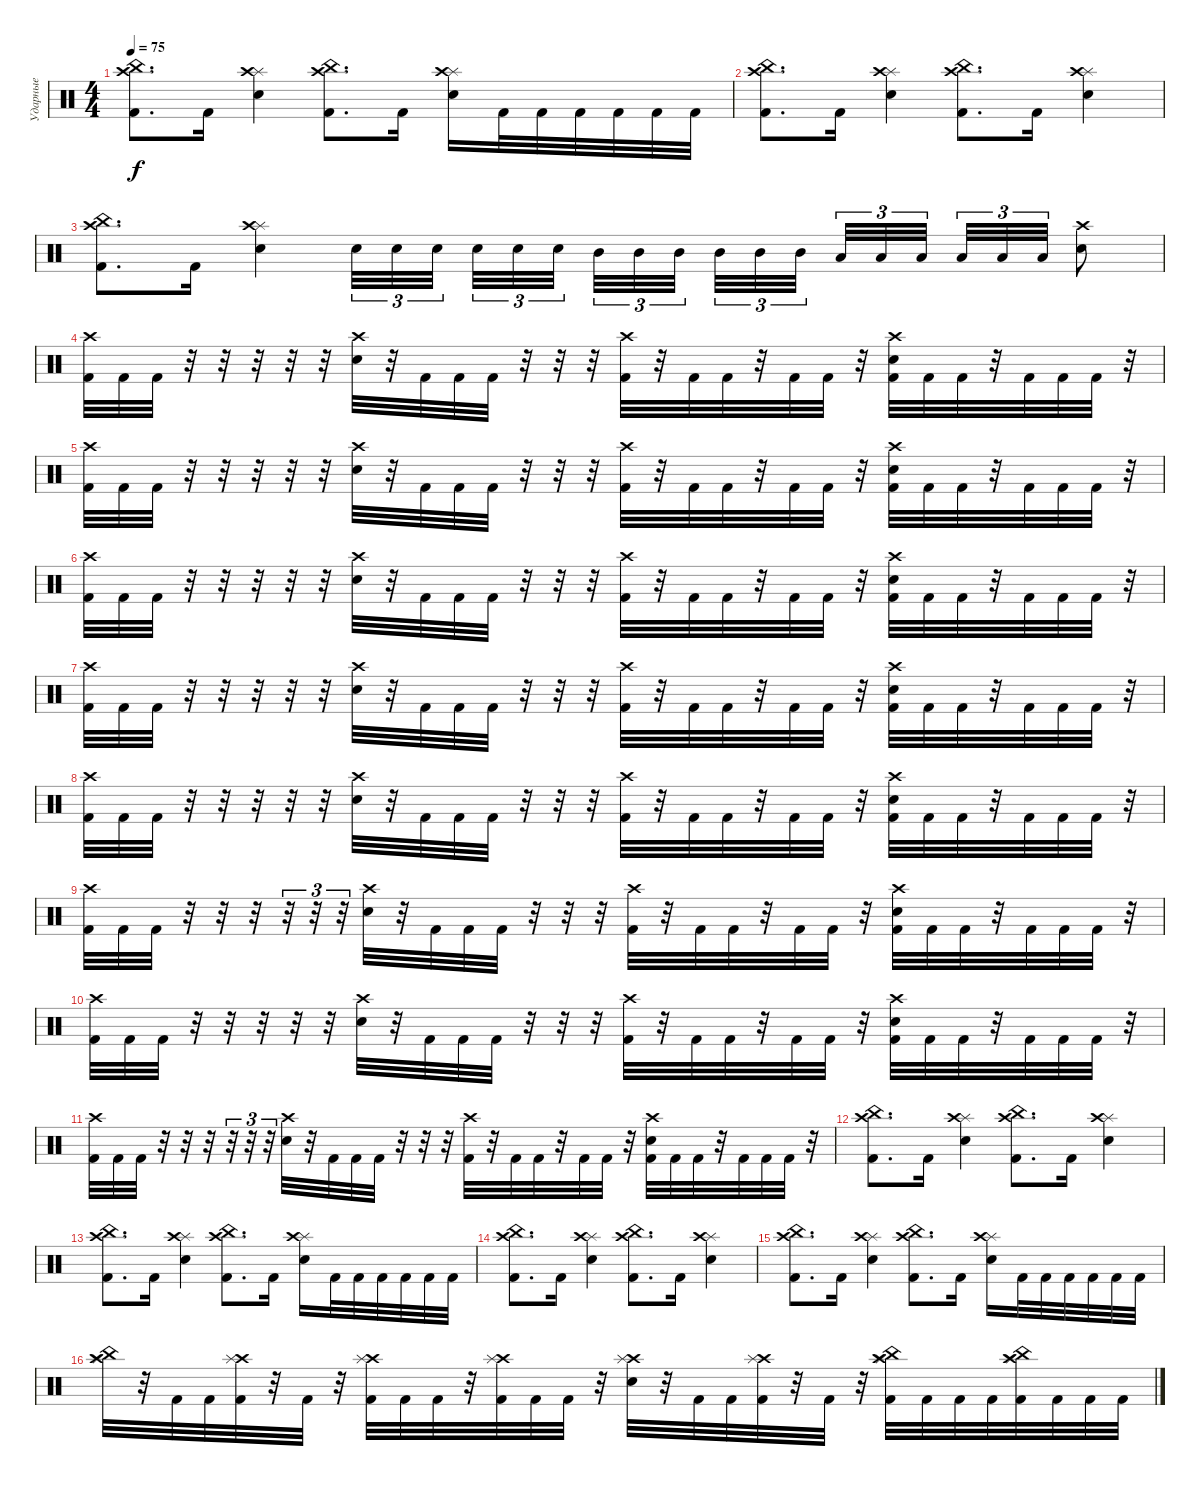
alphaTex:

\track ("Ударные" "Ударные") {instrument percussion}
\staff {score}
\articulation defaults
\ts (4 4)
\tempo 75
\clef neutral
\ks c
("Crash high (hit)" "China (hit)" "Kick (hit) 2").8{d dy f} "Kick (hit) 2".16 ("Splash (hit)" "Crash high (hit)" "Electric Snare (hit)").4 ("China (hit)" "Crash high (hit)" "Kick (hit) 2").8{d} "Kick (hit) 2".16 ("Splash (hit)" "Crash high (hit)" "Electric Snare (hit)").16 "Kick (hit) 2".32 "Kick (hit) 2".32 "Kick (hit) 2".32 "Kick (hit) 2".32 "Kick (hit) 2".32 "Kick (hit) 2".32 |
("Crash high (hit)" "China (hit)" "Kick (hit) 2").8{d} "Kick (hit) 2".16 ("Splash (hit)" "Crash high (hit)" "Electric Snare (hit)").4 ("China (hit)" "Crash high (hit)" "Kick (hit) 2").8{d} "Kick (hit) 2".16 ("Splash (hit)" "Crash high (hit)" "Electric Snare (hit)").4 |
("Crash high (hit)" "China (hit)" "Kick (hit) 2").8{d} "Kick (hit) 2".16 ("Splash (hit)" "Crash high (hit)" "Electric Snare (hit)").4 "Electric Snare (hit)".32{tu (3 2)} "Electric Snare (hit)".32{tu (3 2)} "Electric Snare (hit)".32{tu (3 2) beam splitsecondary} "Electric Snare (hit)".32{tu (3 2)} "Electric Snare (hit)".32{tu (3 2)} "Electric Snare (hit)".32{tu (3 2) beam splitsecondary} "Mid Tom (hit)".32{tu (3 2)} "Mid Tom (hit)".32{tu (3 2)} "Mid Tom (hit)".32{tu (3 2) beam splitsecondary} "Mid Tom (hit)".32{tu (3 2)} "Mid Tom (hit)".32{tu (3 2)} "Mid Tom (hit)".32{tu (3 2)} "Low Tom (hit)".32{tu (3 2)} "Low Tom (hit)".32{tu (3 2)} "Low Tom (hit)".32{tu (3 2) beam splitsecondary} "Low Tom (hit)".32{tu (3 2)} "Low Tom (hit)".32{tu (3 2)} "Low Tom (hit)".32{tu (3 2)} ("Crash high (hit)" "Electric Snare (hit)").8 |
("Crash high (hit)" "Kick (hit) 2").32 "Kick (hit) 2".32 "Kick (hit) 2".32 r.32 r.32 r.32 r.32 r.32 ("Crash high (hit)" "Electric Snare (hit)").32 r.32 "Kick (hit) 2".32 "Kick (hit) 2".32 "Kick (hit) 2".32 r.32 r.32 r.32 ("Crash high (hit)" "Kick (hit) 2").32 r.32 "Kick (hit) 2".32 "Kick (hit) 2".32 r.32 "Kick (hit) 2".32 "Kick (hit) 2".32 r.32 ("Crash high (hit)" "Electric Snare (hit)" "Kick (hit) 2").32 "Kick (hit) 2".32 "Kick (hit) 2".32 r.32 "Kick (hit) 2".32 "Kick (hit) 2".32 "Kick (hit) 2".32 r.32 |
("Crash high (hit)" "Kick (hit) 2").32 "Kick (hit) 2".32 "Kick (hit) 2".32 r.32 r.32 r.32 r.32 r.32 ("Crash high (hit)" "Electric Snare (hit)").32 r.32 "Kick (hit) 2".32 "Kick (hit) 2".32 "Kick (hit) 2".32 r.32 r.32 r.32 ("Crash high (hit)" "Kick (hit) 2").32 r.32 "Kick (hit) 2".32 "Kick (hit) 2".32 r.32 "Kick (hit) 2".32 "Kick (hit) 2".32 r.32 ("Crash high (hit)" "Electric Snare (hit)" "Kick (hit) 2").32 "Kick (hit) 2".32 "Kick (hit) 2".32 r.32 "Kick (hit) 2".32 "Kick (hit) 2".32 "Kick (hit) 2".32 r.32 |
("Crash high (hit)" "Kick (hit) 2").32 "Kick (hit) 2".32 "Kick (hit) 2".32 r.32 r.32 r.32 r.32 r.32 ("Crash high (hit)" "Electric Snare (hit)").32 r.32 "Kick (hit) 2".32 "Kick (hit) 2".32 "Kick (hit) 2".32 r.32 r.32 r.32 ("Crash high (hit)" "Kick (hit) 2").32 r.32 "Kick (hit) 2".32 "Kick (hit) 2".32 r.32 "Kick (hit) 2".32 "Kick (hit) 2".32 r.32 ("Crash high (hit)" "Electric Snare (hit)" "Kick (hit) 2").32 "Kick (hit) 2".32 "Kick (hit) 2".32 r.32 "Kick (hit) 2".32 "Kick (hit) 2".32 "Kick (hit) 2".32 r.32 |
("Crash high (hit)" "Kick (hit) 2").32 "Kick (hit) 2".32 "Kick (hit) 2".32 r.32 r.32 r.32 r.32 r.32 ("Crash high (hit)" "Electric Snare (hit)").32 r.32 "Kick (hit) 2".32 "Kick (hit) 2".32 "Kick (hit) 2".32 r.32 r.32 r.32 ("Crash high (hit)" "Kick (hit) 2").32 r.32 "Kick (hit) 2".32 "Kick (hit) 2".32 r.32 "Kick (hit) 2".32 "Kick (hit) 2".32 r.32 ("Crash high (hit)" "Electric Snare (hit)" "Kick (hit) 2").32 "Kick (hit) 2".32 "Kick (hit) 2".32 r.32 "Kick (hit) 2".32 "Kick (hit) 2".32 "Kick (hit) 2".32 r.32 |
("Crash high (hit)" "Kick (hit) 2").32 "Kick (hit) 2".32 "Kick (hit) 2".32 r.32 r.32 r.32 r.32 r.32 ("Crash high (hit)" "Electric Snare (hit)").32 r.32 "Kick (hit) 2".32 "Kick (hit) 2".32 "Kick (hit) 2".32 r.32 r.32 r.32 ("Crash high (hit)" "Kick (hit) 2").32 r.32 "Kick (hit) 2".32 "Kick (hit) 2".32 r.32 "Kick (hit) 2".32 "Kick (hit) 2".32 r.32 ("Crash high (hit)" "Electric Snare (hit)" "Kick (hit) 2").32 "Kick (hit) 2".32 "Kick (hit) 2".32 r.32 "Kick (hit) 2".32 "Kick (hit) 2".32 "Kick (hit) 2".32 r.32 |
("Crash high (hit)" "Kick (hit) 2").32 "Kick (hit) 2".32 "Kick (hit) 2".32 r.32 r.32 r.32 r.32{tu (3 2)} r.32{tu (3 2)} r.32{tu (3 2)} ("Crash high (hit)" "Electric Snare (hit)").32 r.32 "Kick (hit) 2".32 "Kick (hit) 2".32 "Kick (hit) 2".32 r.32 r.32 r.32 ("Crash high (hit)" "Kick (hit) 2").32 r.32 "Kick (hit) 2".32 "Kick (hit) 2".32 r.32 "Kick (hit) 2".32 "Kick (hit) 2".32 r.32 ("Crash high (hit)" "Electric Snare (hit)" "Kick (hit) 2").32 "Kick (hit) 2".32 "Kick (hit) 2".32 r.32 "Kick (hit) 2".32 "Kick (hit) 2".32 "Kick (hit) 2".32 r.32 |
("Crash high (hit)" "Kick (hit) 2").32 "Kick (hit) 2".32 "Kick (hit) 2".32 r.32 r.32 r.32 r.32 r.32 ("Crash high (hit)" "Electric Snare (hit)").32 r.32 "Kick (hit) 2".32 "Kick (hit) 2".32 "Kick (hit) 2".32 r.32 r.32 r.32 ("Crash high (hit)" "Kick (hit) 2").32 r.32 "Kick (hit) 2".32 "Kick (hit) 2".32 r.32 "Kick (hit) 2".32 "Kick (hit) 2".32 r.32 ("Crash high (hit)" "Electric Snare (hit)" "Kick (hit) 2").32 "Kick (hit) 2".32 "Kick (hit) 2".32 r.32 "Kick (hit) 2".32 "Kick (hit) 2".32 "Kick (hit) 2".32 r.32 |
("Crash high (hit)" "Kick (hit) 2").32 "Kick (hit) 2".32 "Kick (hit) 2".32 r.32 r.32 r.32 r.32{tu (3 2)} r.32{tu (3 2)} r.32{tu (3 2)} ("Crash high (hit)" "Electric Snare (hit)").32 r.32 "Kick (hit) 2".32 "Kick (hit) 2".32 "Kick (hit) 2".32 r.32 r.32 r.32 ("Crash high (hit)" "Kick (hit) 2").32 r.32 "Kick (hit) 2".32 "Kick (hit) 2".32 r.32 "Kick (hit) 2".32 "Kick (hit) 2".32 r.32 ("Crash high (hit)" "Electric Snare (hit)" "Kick (hit) 2").32 "Kick (hit) 2".32 "Kick (hit) 2".32 r.32 "Kick (hit) 2".32 "Kick (hit) 2".32 "Kick (hit) 2".32 r.32 |
("Crash high (hit)" "China (hit)" "Kick (hit) 2").8{d} "Kick (hit) 2".16 ("Splash (hit)" "Crash high (hit)" "Electric Snare (hit)").4 ("China (hit)" "Crash high (hit)" "Kick (hit) 2").8{d} "Kick (hit) 2".16 ("Splash (hit)" "Crash high (hit)" "Electric Snare (hit)").4 |
("Crash high (hit)" "China (hit)" "Kick (hit) 2").8{d} "Kick (hit) 2".16 ("Splash (hit)" "Crash high (hit)" "Electric Snare (hit)").4 ("China (hit)" "Crash high (hit)" "Kick (hit) 2").8{d} "Kick (hit) 2".16 ("Splash (hit)" "Crash high (hit)" "Electric Snare (hit)").16 "Kick (hit) 2".32 "Kick (hit) 2".32 "Kick (hit) 2".32 "Kick (hit) 2".32 "Kick (hit) 2".32 "Kick (hit) 2".32 |
("Crash high (hit)" "China (hit)" "Kick (hit) 2").8{d} "Kick (hit) 2".16 ("Splash (hit)" "Crash high (hit)" "Electric Snare (hit)").4 ("China (hit)" "Crash high (hit)" "Kick (hit) 2").8{d} "Kick (hit) 2".16 ("Splash (hit)" "Crash high (hit)" "Electric Snare (hit)").4 |
("Crash high (hit)" "China (hit)" "Kick (hit) 2").8{d} "Kick (hit) 2".16 ("Splash (hit)" "Crash high (hit)" "Electric Snare (hit)").4 ("China (hit)" "Crash high (hit)" "Kick (hit) 2").8{d} "Kick (hit) 2".16 ("Splash (hit)" "Crash high (hit)" "Electric Snare (hit)").16 "Kick (hit) 2".32 "Kick (hit) 2".32 "Kick (hit) 2".32 "Kick (hit) 2".32 "Kick (hit) 2".32 "Kick (hit) 2".32 |
("Crash high (hit)" "Splash (hit)" "China (hit)").32 r.32 "Kick (hit) 2".32 "Kick (hit) 2".32 ("Crash high (hit)" "Splash (hit)" "Kick (hit) 2").32 r.32 "Kick (hit) 2".32 r.32 ("Crash high (hit)" "Splash (hit)" "Kick (hit) 2").32 "Kick (hit) 2".32 "Kick (hit) 2".32 r.32 ("Crash high (hit)" "Splash (hit)" "Kick (hit) 2").32 "Kick (hit) 2".32 "Kick (hit) 2".32 r.32 ("Crash high (hit)" "Splash (hit)" "Electric Snare (hit)").32 r.32 "Kick (hit) 2".32 "Kick (hit) 2".32 ("Crash high (hit)" "Splash (hit)" "Kick (hit) 2").32 r.32 "Kick (hit) 2".32 r.32 ("Crash high (hit)" "Splash (hit)" "China (hit)" "Kick (hit) 2").32 "Kick (hit) 2".32 "Kick (hit) 2".32 "Kick (hit) 2".32 ("Crash high (hit)" "Splash (hit)" "China (hit)" "Kick (hit) 2").32 "Kick (hit) 2".32 "Kick (hit) 2".32 "Kick (hit) 2".32
